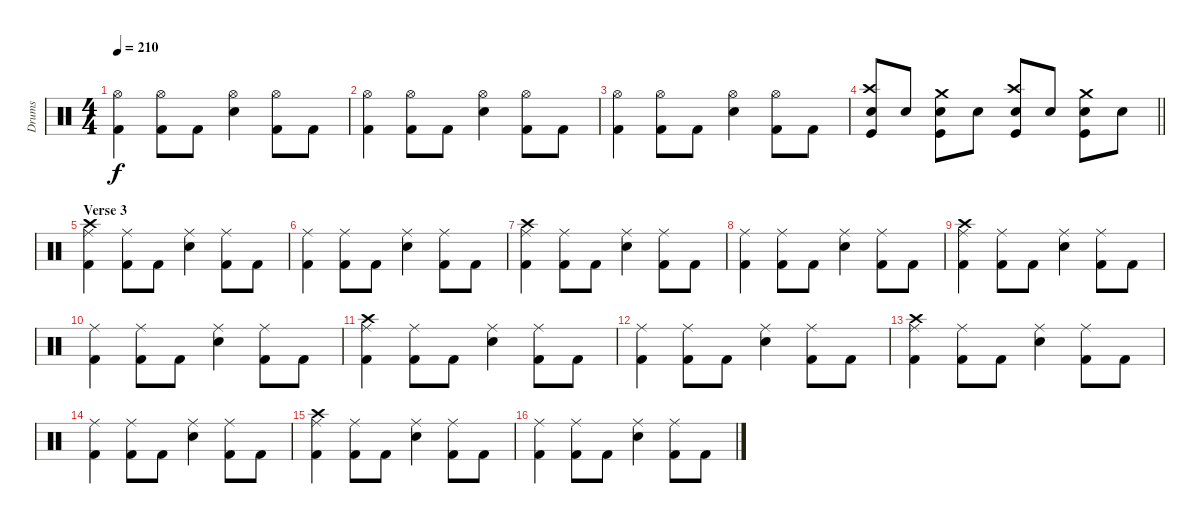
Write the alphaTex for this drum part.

\track ("Drums" "Drums") {instrument percussion}
\staff {score}
\articulation defaults
\ts (4 4)
\tempo 210
\clef neutral
\ks c
("Hi-Hat (open)" "Kick (hit) 2").4{dy f} ("Hi-Hat (open)" "Kick (hit) 2").8 "Kick (hit) 2".8 ("Hi-Hat (open)" "Snare (hit) 2").4 ("Hi-Hat (open)" "Kick (hit) 2").8 "Kick (hit) 2".8 |
("Hi-Hat (open)" "Kick (hit) 2").4 ("Hi-Hat (open)" "Kick (hit) 2").8 "Kick (hit) 2".8 ("Hi-Hat (open)" "Snare (hit) 2").4 ("Hi-Hat (open)" "Kick (hit) 2").8 "Kick (hit) 2".8 |
("Hi-Hat (open)" "Kick (hit) 2").4 ("Hi-Hat (open)" "Kick (hit) 2").8 "Kick (hit) 2".8 ("Hi-Hat (open)" "Snare (hit) 2").4 ("Hi-Hat (open)" "Kick (hit) 2").8 "Kick (hit) 2".8 |
\barLineRight lightlight
("Crash high (hit)" "Snare (hit) 2" "Kick (hit)").8 "Snare (hit) 2".8 ("Crash medium (hit)" "Snare (hit) 2" "Kick (hit)").8 "Snare (hit) 2".8 ("Crash high (hit)" "Snare (hit) 2" "Kick (hit)").8 "Snare (hit) 2".8 ("Crash medium (hit)" "Snare (hit) 2" "Kick (hit)").8 "Snare (hit) 2".8 |
\section ("" "Verse 3")
("Crash high (hit)" "Ride (middle)" "Kick (hit) 2").4 ("Ride (middle)" "Kick (hit) 2").8 "Kick (hit) 2".8 ("Ride (middle)" "Snare (hit) 2").4 ("Ride (middle)" "Kick (hit) 2").8 "Kick (hit) 2".8 |
("Ride (middle)" "Kick (hit) 2").4 ("Ride (middle)" "Kick (hit) 2").8 "Kick (hit) 2".8 ("Ride (middle)" "Snare (hit) 2").4 ("Ride (middle)" "Kick (hit) 2").8 "Kick (hit) 2".8 |
("Crash high (hit)" "Ride (middle)" "Kick (hit) 2").4 ("Ride (middle)" "Kick (hit) 2").8 "Kick (hit) 2".8 ("Ride (middle)" "Snare (hit) 2").4 ("Ride (middle)" "Kick (hit) 2").8 "Kick (hit) 2".8 |
("Ride (middle)" "Kick (hit) 2").4 ("Ride (middle)" "Kick (hit) 2").8 "Kick (hit) 2".8 ("Ride (middle)" "Snare (hit) 2").4 ("Ride (middle)" "Kick (hit) 2").8 "Kick (hit) 2".8 |
("Crash high (hit)" "Ride (middle)" "Kick (hit) 2").4 ("Ride (middle)" "Kick (hit) 2").8 "Kick (hit) 2".8 ("Ride (middle)" "Snare (hit) 2").4 ("Ride (middle)" "Kick (hit) 2").8 "Kick (hit) 2".8 |
("Ride (middle)" "Kick (hit) 2").4 ("Ride (middle)" "Kick (hit) 2").8 "Kick (hit) 2".8 ("Ride (middle)" "Snare (hit) 2").4 ("Ride (middle)" "Kick (hit) 2").8 "Kick (hit) 2".8 |
("Crash high (hit)" "Ride (middle)" "Kick (hit) 2").4 ("Ride (middle)" "Kick (hit) 2").8 "Kick (hit) 2".8 ("Ride (middle)" "Snare (hit) 2").4 ("Ride (middle)" "Kick (hit) 2").8 "Kick (hit) 2".8 |
("Ride (middle)" "Kick (hit) 2").4 ("Ride (middle)" "Kick (hit) 2").8 "Kick (hit) 2".8 ("Ride (middle)" "Snare (hit) 2").4 ("Ride (middle)" "Kick (hit) 2").8 "Kick (hit) 2".8 |
("Crash high (hit)" "Ride (middle)" "Kick (hit) 2").4 ("Ride (middle)" "Kick (hit) 2").8 "Kick (hit) 2".8 ("Ride (middle)" "Snare (hit) 2").4 ("Ride (middle)" "Kick (hit) 2").8 "Kick (hit) 2".8 |
("Ride (middle)" "Kick (hit) 2").4 ("Ride (middle)" "Kick (hit) 2").8 "Kick (hit) 2".8 ("Ride (middle)" "Snare (hit) 2").4 ("Ride (middle)" "Kick (hit) 2").8 "Kick (hit) 2".8 |
("Crash high (hit)" "Ride (middle)" "Kick (hit) 2").4 ("Ride (middle)" "Kick (hit) 2").8 "Kick (hit) 2".8 ("Ride (middle)" "Snare (hit) 2").4 ("Ride (middle)" "Kick (hit) 2").8 "Kick (hit) 2".8 |
("Ride (middle)" "Kick (hit) 2").4 ("Ride (middle)" "Kick (hit) 2").8 "Kick (hit) 2".8 ("Ride (middle)" "Snare (hit) 2").4 ("Ride (middle)" "Kick (hit) 2").8 "Kick (hit) 2".8
